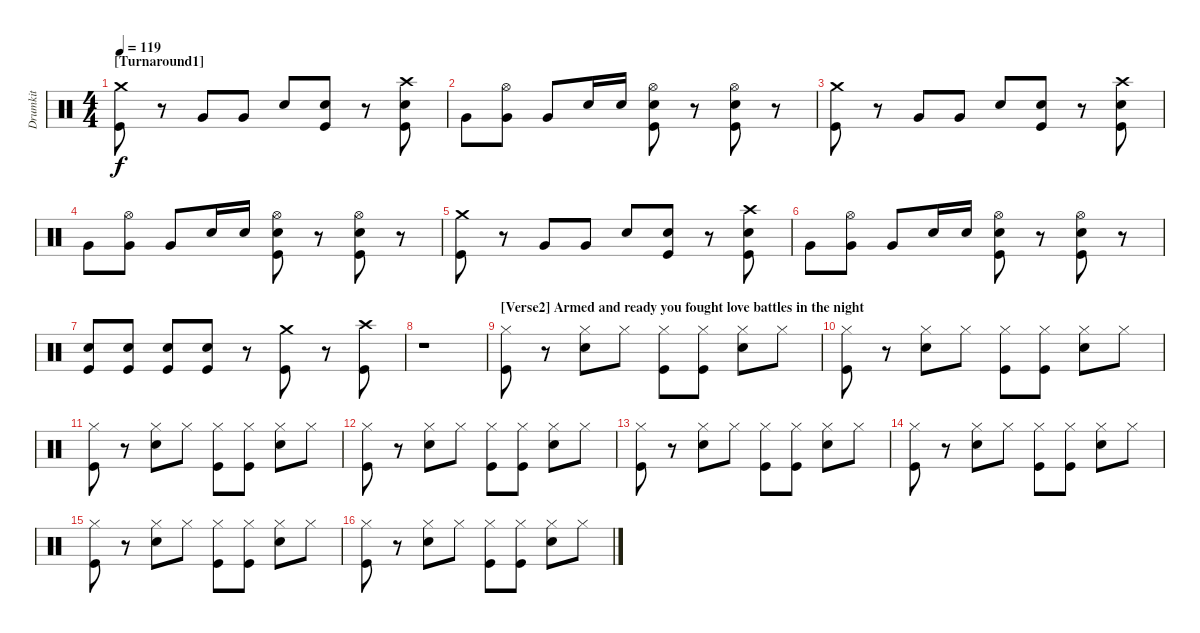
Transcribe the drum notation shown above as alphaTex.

\track ("Drumkit" "Drumkit") {instrument percussion}
\staff {score}
\articulation defaults
\ts (4 4)
\section ("" "[Turnaround1] ")
\tempo 119
\clef neutral
\ks c
("Crash medium (hit)" "Kick (hit)").8{dy f} r.8 "Very Low Tom (hit)".8 "Very Low Tom (hit)".8 "Snare (hit) 2".8 ("Snare (hit) 2" "Kick (hit)").8 r.8 ("Crash high (hit)" "Snare (hit) 2" "Kick (hit)").8 |
"Very Low Tom (hit)".8 ("Hi-Hat (open)" "Very Low Tom (hit)").8 "Very Low Tom (hit)".8 "Snare (hit) 2".16 "Snare (hit) 2".16 ("Hi-Hat (open)" "Snare (hit) 2" "Kick (hit)").8 r.8 ("Hi-Hat (open)" "Snare (hit) 2" "Kick (hit)").8 r.8 |
("Crash medium (hit)" "Kick (hit)").8 r.8 "Very Low Tom (hit)".8 "Very Low Tom (hit)".8 "Snare (hit) 2".8 ("Snare (hit) 2" "Kick (hit)").8 r.8 ("Crash high (hit)" "Snare (hit) 2" "Kick (hit)").8 |
"Very Low Tom (hit)".8 ("Hi-Hat (open)" "Very Low Tom (hit)").8 "Very Low Tom (hit)".8 "Snare (hit) 2".16 "Snare (hit) 2".16 ("Hi-Hat (open)" "Snare (hit) 2" "Kick (hit)").8 r.8 ("Hi-Hat (open)" "Snare (hit) 2" "Kick (hit)").8 r.8 |
("Crash medium (hit)" "Kick (hit)").8 r.8 "Very Low Tom (hit)".8 "Very Low Tom (hit)".8 "Snare (hit) 2".8 ("Snare (hit) 2" "Kick (hit)").8 r.8 ("Crash high (hit)" "Snare (hit) 2" "Kick (hit)").8 |
"Very Low Tom (hit)".8 ("Hi-Hat (open)" "Very Low Tom (hit)").8 "Very Low Tom (hit)".8 "Snare (hit) 2".16 "Snare (hit) 2".16 ("Hi-Hat (open)" "Snare (hit) 2" "Kick (hit)").8 r.8 ("Hi-Hat (open)" "Snare (hit) 2" "Kick (hit)").8 r.8 |
("Snare (hit) 2" "Kick (hit)").8 ("Snare (hit) 2" "Kick (hit)").8 ("Snare (hit) 2" "Kick (hit)").8 ("Snare (hit) 2" "Kick (hit)").8 r.8 ("Crash medium (hit)" "Kick (hit)").8 r.8 ("Crash high (hit)" "Kick (hit)").8 |
r.1 |
\section ("" "[Verse2] Armed and ready you fought love battles in the night")
("Hi-Hat (closed)" "Kick (hit)").8 r.8 ("Hi-Hat (closed)" "Snare (hit) 2").8 "Hi-Hat (closed)".8 ("Hi-Hat (closed)" "Kick (hit)").8 ("Hi-Hat (closed)" "Kick (hit)").8 ("Hi-Hat (closed)" "Snare (hit) 2").8 "Hi-Hat (closed)".8 |
("Hi-Hat (closed)" "Kick (hit)").8 r.8 ("Hi-Hat (closed)" "Snare (hit) 2").8 "Hi-Hat (closed)".8 ("Hi-Hat (closed)" "Kick (hit)").8 ("Hi-Hat (closed)" "Kick (hit)").8 ("Hi-Hat (closed)" "Snare (hit) 2").8 "Hi-Hat (closed)".8 |
("Hi-Hat (closed)" "Kick (hit)").8 r.8 ("Hi-Hat (closed)" "Snare (hit) 2").8 "Hi-Hat (closed)".8 ("Hi-Hat (closed)" "Kick (hit)").8 ("Hi-Hat (closed)" "Kick (hit)").8 ("Hi-Hat (closed)" "Snare (hit) 2").8 "Hi-Hat (closed)".8 |
("Hi-Hat (closed)" "Kick (hit)").8 r.8 ("Hi-Hat (closed)" "Snare (hit) 2").8 "Hi-Hat (closed)".8 ("Hi-Hat (closed)" "Kick (hit)").8 ("Hi-Hat (closed)" "Kick (hit)").8 ("Hi-Hat (closed)" "Snare (hit) 2").8 "Hi-Hat (closed)".8 |
("Hi-Hat (closed)" "Kick (hit)").8 r.8 ("Hi-Hat (closed)" "Snare (hit) 2").8 "Hi-Hat (closed)".8 ("Hi-Hat (closed)" "Kick (hit)").8 ("Hi-Hat (closed)" "Kick (hit)").8 ("Hi-Hat (closed)" "Snare (hit) 2").8 "Hi-Hat (closed)".8 |
("Hi-Hat (closed)" "Kick (hit)").8 r.8 ("Hi-Hat (closed)" "Snare (hit) 2").8 "Hi-Hat (closed)".8 ("Hi-Hat (closed)" "Kick (hit)").8 ("Hi-Hat (closed)" "Kick (hit)").8 ("Hi-Hat (closed)" "Snare (hit) 2").8 "Hi-Hat (closed)".8 |
("Hi-Hat (closed)" "Kick (hit)").8 r.8 ("Hi-Hat (closed)" "Snare (hit) 2").8 "Hi-Hat (closed)".8 ("Hi-Hat (closed)" "Kick (hit)").8 ("Hi-Hat (closed)" "Kick (hit)").8 ("Hi-Hat (closed)" "Snare (hit) 2").8 "Hi-Hat (closed)".8 |
("Hi-Hat (closed)" "Kick (hit)").8 r.8 ("Hi-Hat (closed)" "Snare (hit) 2").8 "Hi-Hat (closed)".8 ("Hi-Hat (closed)" "Kick (hit)").8 ("Hi-Hat (closed)" "Kick (hit)").8 ("Hi-Hat (closed)" "Snare (hit) 2").8 "Hi-Hat (closed)".8
